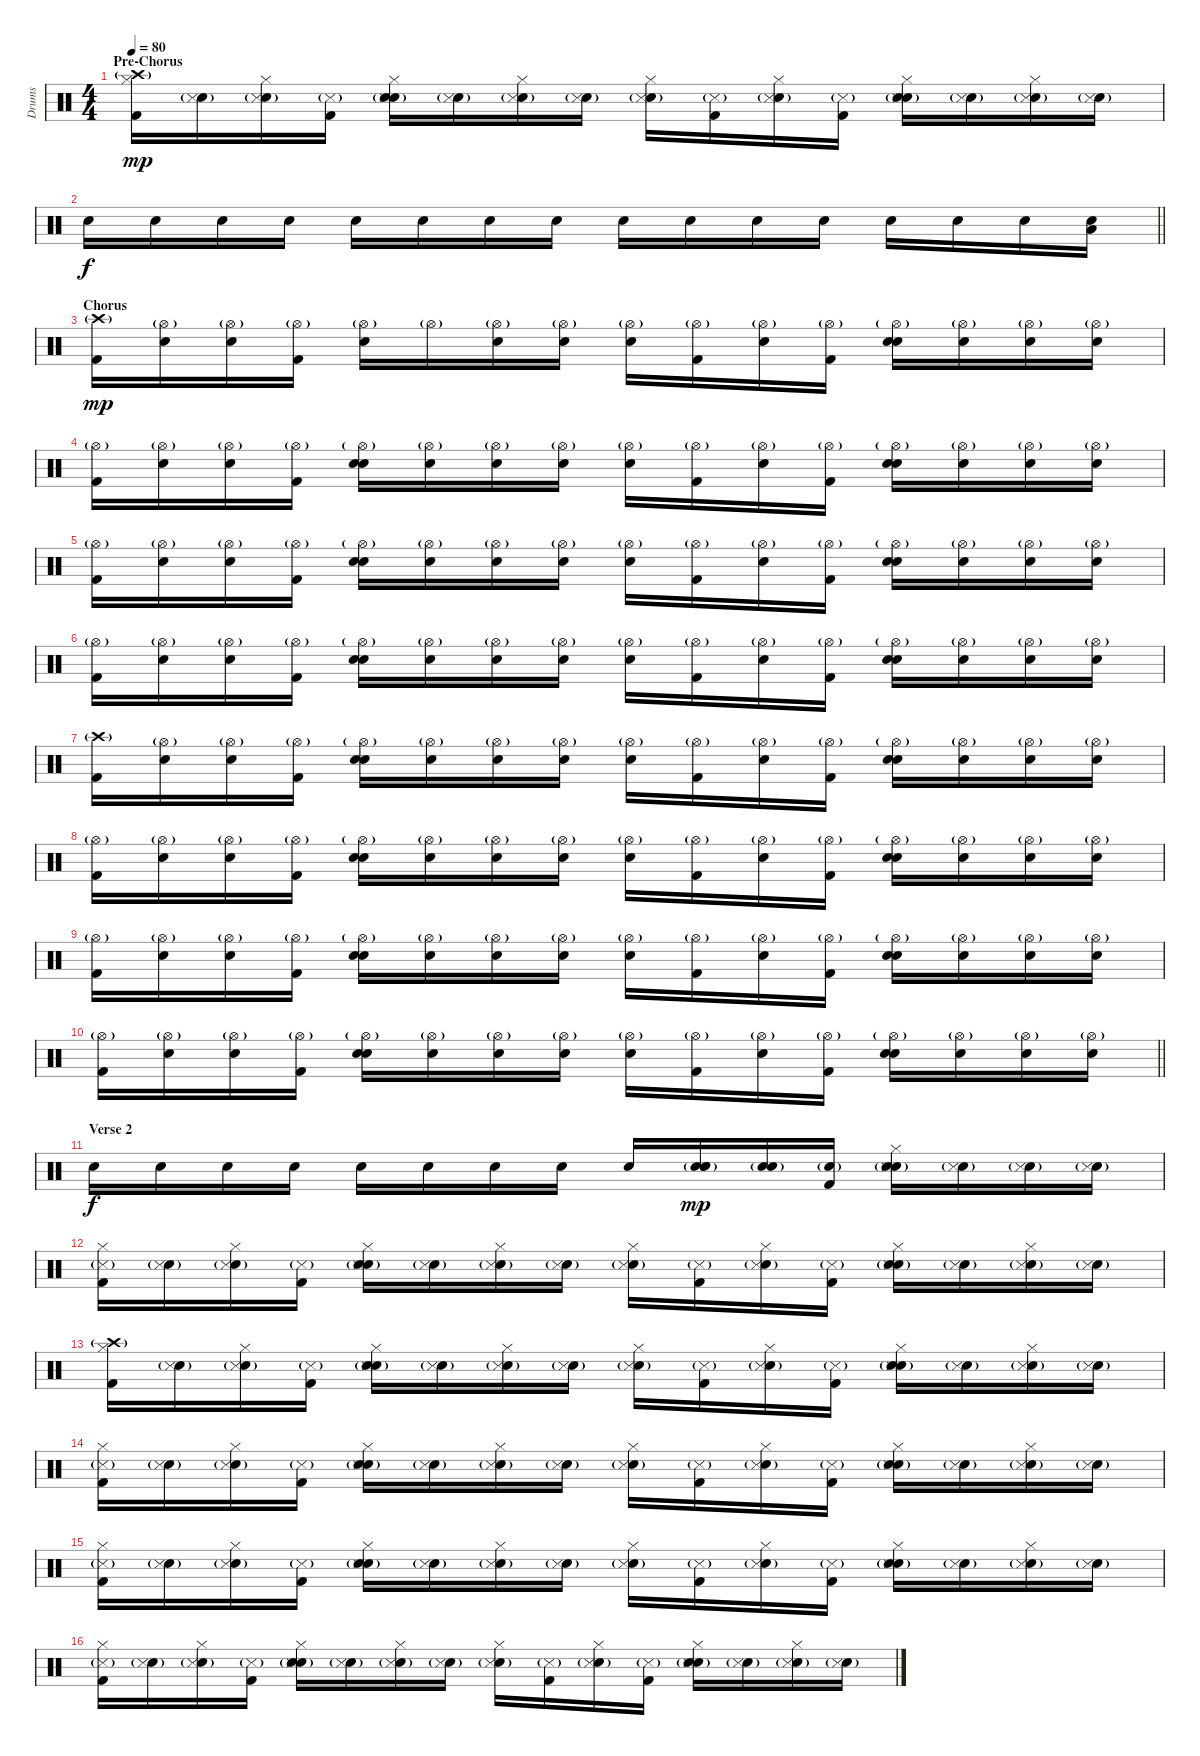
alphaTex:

\track ("Drums" "Drums") {instrument percussion}
\staff {score}
\articulation defaults
\ts (4 4)
\section ("" "Pre-Chorus")
\tempo 80
\clef neutral
\ks c
("Kick (hit) 2" "Hi-Hat (closed)" "Crash high (hit)"{g}).16{dy mp} ("Snare (hit)" "Snare (side stick) 3"{g}).16 ("Snare (hit)" "Hi-Hat (closed)" "Snare (side stick) 3"{g}).16 ("Kick (hit) 2" "Snare (side stick) 3"{g}).16 ("Snare (hit)" "Electric Snare (hit)" "Hi-Hat (closed)" "Snare (side stick) 3"{g}).16 ("Snare (hit)" "Snare (side stick) 3"{g}).16 ("Snare (hit)" "Hi-Hat (closed)" "Snare (side stick) 3"{g}).16 ("Snare (hit)" "Snare (side stick) 3"{g}).16 ("Snare (hit)" "Hi-Hat (closed)" "Snare (side stick) 3"{g}).16 ("Kick (hit) 2" "Snare (side stick) 3"{g}).16 ("Snare (hit)" "Hi-Hat (closed)" "Snare (side stick) 3"{g}).16 ("Kick (hit) 2" "Snare (side stick) 3"{g}).16 ("Snare (hit)" "Electric Snare (hit)" "Hi-Hat (closed)" "Snare (side stick) 3"{g}).16 ("Snare (hit)" "Snare (side stick) 3"{g}).16 ("Snare (hit)" "Hi-Hat (closed)" "Snare (side stick) 3"{g}).16 ("Snare (hit)" "Snare (side stick) 3"{g}).16 |
\barLineRight lightlight "Snare (hit)".16{dy f} "Snare (hit)".16 "Snare (hit)".16 "Snare (hit)".16 "Snare (hit)".16 "Snare (hit)".16 "Snare (hit)".16 "Snare (hit)".16 "Snare (hit)".16 "Snare (hit)".16 "Snare (hit)".16 "Snare (hit)".16 "Electric Snare (hit)".16 "Electric Snare (hit)".16 "Electric Snare (hit)".16
("Snare (hit)" "Low Tom (hit)").16 |
\section ("" "Chorus")
("Kick (hit) 2" "Crash high (hit)"{g}).16{dy mp} ("Snare (hit)" "Hi-Hat (open)"{g}).16 ("Snare (hit)" "Hi-Hat (open)"{g}).16 ("Kick (hit) 2" "Hi-Hat (open)"{g}).16 ("Electric Snare (hit)" "Hi-Hat (open)"{g}).16 "Hi-Hat (open)"{g}.16 ("Snare (hit)" "Hi-Hat (open)"{g}).16 ("Snare (hit)" "Hi-Hat (open)"{g}).16 ("Snare (hit)" "Hi-Hat (open)"{g}).16 ("Kick (hit) 2" "Hi-Hat (open)"{g}).16 ("Snare (hit)" "Hi-Hat (open)"{g}).16 ("Kick (hit) 2" "Hi-Hat (open)"{g}).16 ("Snare (hit)" "Electric Snare (hit)" "Hi-Hat (open)"{g}).16 ("Snare (hit)" "Hi-Hat (open)"{g}).16 ("Snare (hit)" "Hi-Hat (open)"{g}).16 ("Snare (hit)" "Hi-Hat (open)"{g}).16 |
("Kick (hit) 2" "Hi-Hat (open)"{g}).16 ("Snare (hit)" "Hi-Hat (open)"{g}).16 ("Snare (hit)" "Hi-Hat (open)"{g}).16 ("Kick (hit) 2" "Hi-Hat (open)"{g}).16 ("Snare (hit)" "Electric Snare (hit)" "Hi-Hat (open)"{g}).16 ("Snare (hit)" "Hi-Hat (open)"{g}).16 ("Snare (hit)" "Hi-Hat (open)"{g}).16 ("Snare (hit)" "Hi-Hat (open)"{g}).16 ("Snare (hit)" "Hi-Hat (open)"{g}).16 ("Kick (hit) 2" "Hi-Hat (open)"{g}).16 ("Snare (hit)" "Hi-Hat (open)"{g}).16 ("Kick (hit) 2" "Hi-Hat (open)"{g}).16 ("Snare (hit)" "Electric Snare (hit)" "Hi-Hat (open)"{g}).16 ("Snare (hit)" "Hi-Hat (open)"{g}).16 ("Snare (hit)" "Hi-Hat (open)"{g}).16 ("Snare (hit)" "Hi-Hat (open)"{g}).16 |
("Kick (hit) 2" "Hi-Hat (open)"{g}).16 ("Snare (hit)" "Hi-Hat (open)"{g}).16 ("Snare (hit)" "Hi-Hat (open)"{g}).16 ("Kick (hit) 2" "Hi-Hat (open)"{g}).16 ("Snare (hit)" "Electric Snare (hit)" "Hi-Hat (open)"{g}).16 ("Snare (hit)" "Hi-Hat (open)"{g}).16 ("Snare (hit)" "Hi-Hat (open)"{g}).16 ("Snare (hit)" "Hi-Hat (open)"{g}).16 ("Snare (hit)" "Hi-Hat (open)"{g}).16 ("Kick (hit) 2" "Hi-Hat (open)"{g}).16 ("Snare (hit)" "Hi-Hat (open)"{g}).16 ("Kick (hit) 2" "Hi-Hat (open)"{g}).16 ("Snare (hit)" "Electric Snare (hit)" "Hi-Hat (open)"{g}).16 ("Snare (hit)" "Hi-Hat (open)"{g}).16 ("Snare (hit)" "Hi-Hat (open)"{g}).16 ("Snare (hit)" "Hi-Hat (open)"{g}).16 |
("Kick (hit) 2" "Hi-Hat (open)"{g}).16 ("Snare (hit)" "Hi-Hat (open)"{g}).16 ("Snare (hit)" "Hi-Hat (open)"{g}).16 ("Kick (hit) 2" "Hi-Hat (open)"{g}).16 ("Snare (hit)" "Electric Snare (hit)" "Hi-Hat (open)"{g}).16 ("Snare (hit)" "Hi-Hat (open)"{g}).16 ("Snare (hit)" "Hi-Hat (open)"{g}).16 ("Snare (hit)" "Hi-Hat (open)"{g}).16 ("Snare (hit)" "Hi-Hat (open)"{g}).16 ("Kick (hit) 2" "Hi-Hat (open)"{g}).16 ("Snare (hit)" "Hi-Hat (open)"{g}).16 ("Kick (hit) 2" "Hi-Hat (open)"{g}).16 ("Snare (hit)" "Electric Snare (hit)" "Hi-Hat (open)"{g}).16 ("Snare (hit)" "Hi-Hat (open)"{g}).16 ("Snare (hit)" "Hi-Hat (open)"{g}).16 ("Snare (hit)" "Hi-Hat (open)"{g}).16 |
("Kick (hit) 2" "Crash high (hit)"{g}).16 ("Snare (hit)" "Hi-Hat (open)"{g}).16 ("Snare (hit)" "Hi-Hat (open)"{g}).16 ("Kick (hit) 2" "Hi-Hat (open)"{g}).16 ("Snare (hit)" "Electric Snare (hit)" "Hi-Hat (open)"{g}).16 ("Snare (hit)" "Hi-Hat (open)"{g}).16 ("Snare (hit)" "Hi-Hat (open)"{g}).16 ("Snare (hit)" "Hi-Hat (open)"{g}).16 ("Snare (hit)" "Hi-Hat (open)"{g}).16 ("Kick (hit) 2" "Hi-Hat (open)"{g}).16 ("Snare (hit)" "Hi-Hat (open)"{g}).16 ("Kick (hit) 2" "Hi-Hat (open)"{g}).16 ("Snare (hit)" "Electric Snare (hit)" "Hi-Hat (open)"{g}).16 ("Snare (hit)" "Hi-Hat (open)"{g}).16 ("Snare (hit)" "Hi-Hat (open)"{g}).16 ("Snare (hit)" "Hi-Hat (open)"{g}).16 |
("Kick (hit) 2" "Hi-Hat (open)"{g}).16 ("Snare (hit)" "Hi-Hat (open)"{g}).16 ("Snare (hit)" "Hi-Hat (open)"{g}).16 ("Kick (hit) 2" "Hi-Hat (open)"{g}).16 ("Snare (hit)" "Electric Snare (hit)" "Hi-Hat (open)"{g}).16 ("Snare (hit)" "Hi-Hat (open)"{g}).16 ("Snare (hit)" "Hi-Hat (open)"{g}).16 ("Snare (hit)" "Hi-Hat (open)"{g}).16 ("Snare (hit)" "Hi-Hat (open)"{g}).16 ("Kick (hit) 2" "Hi-Hat (open)"{g}).16 ("Snare (hit)" "Hi-Hat (open)"{g}).16 ("Kick (hit) 2" "Hi-Hat (open)"{g}).16 ("Snare (hit)" "Electric Snare (hit)" "Hi-Hat (open)"{g}).16 ("Snare (hit)" "Hi-Hat (open)"{g}).16 ("Snare (hit)" "Hi-Hat (open)"{g}).16 ("Snare (hit)" "Hi-Hat (open)"{g}).16 |
("Kick (hit) 2" "Hi-Hat (open)"{g}).16 ("Snare (hit)" "Hi-Hat (open)"{g}).16 ("Snare (hit)" "Hi-Hat (open)"{g}).16 ("Kick (hit) 2" "Hi-Hat (open)"{g}).16 ("Snare (hit)" "Electric Snare (hit)" "Hi-Hat (open)"{g}).16 ("Snare (hit)" "Hi-Hat (open)"{g}).16 ("Snare (hit)" "Hi-Hat (open)"{g}).16 ("Snare (hit)" "Hi-Hat (open)"{g}).16 ("Snare (hit)" "Hi-Hat (open)"{g}).16 ("Kick (hit) 2" "Hi-Hat (open)"{g}).16 ("Snare (hit)" "Hi-Hat (open)"{g}).16 ("Kick (hit) 2" "Hi-Hat (open)"{g}).16 ("Snare (hit)" "Electric Snare (hit)" "Hi-Hat (open)"{g}).16 ("Snare (hit)" "Hi-Hat (open)"{g}).16 ("Snare (hit)" "Hi-Hat (open)"{g}).16 ("Snare (hit)" "Hi-Hat (open)"{g}).16 |
\barLineRight lightlight
("Kick (hit) 2" "Hi-Hat (open)"{g}).16 ("Snare (hit)" "Hi-Hat (open)"{g}).16 ("Snare (hit)" "Hi-Hat (open)"{g}).16 ("Kick (hit) 2" "Hi-Hat (open)"{g}).16 ("Snare (hit)" "Electric Snare (hit)" "Hi-Hat (open)"{g}).16 ("Snare (hit)" "Hi-Hat (open)"{g}).16 ("Snare (hit)" "Hi-Hat (open)"{g}).16 ("Snare (hit)" "Hi-Hat (open)"{g}).16 ("Snare (hit)" "Hi-Hat (open)"{g}).16 ("Kick (hit) 2" "Hi-Hat (open)"{g}).16 ("Snare (hit)" "Hi-Hat (open)"{g}).16 ("Kick (hit) 2" "Hi-Hat (open)"{g}).16 ("Snare (hit)" "Electric Snare (hit)" "Hi-Hat (open)"{g}).16 ("Snare (hit)" "Hi-Hat (open)"{g}).16 ("Snare (hit)" "Hi-Hat (open)"{g}).16 ("Snare (hit)" "Hi-Hat (open)"{g}).16 |
\section ("" "Verse 2")
"Snare (hit)".16{dy f} "Snare (hit)".16 "Snare (hit)".16 "Snare (hit)".16 "Snare (hit)".16 "Snare (hit)".16 "Snare (hit)".16 "Snare (hit)".16 "Snare (hit)".16 ("Snare (hit)" "Snare (hit)" "Snare (hit)"{g}).16{dy mp} ("Snare (hit)" "Snare (hit)"{g}).16 ("Kick (hit) 2" "Snare (hit)"{g}).16 ("Snare (hit)" "Electric Snare (hit)" "Hi-Hat (closed)" "Snare (side stick) 3"{g}).16 ("Snare (hit)" "Snare (side stick) 3"{g}).16 ("Snare (hit)" "Snare (side stick) 3"{g}).16 ("Snare (hit)" "Snare (side stick) 3"{g}).16 |
("Kick (hit) 2" "Hi-Hat (closed)" "Snare (side stick) 3"{g}).16 ("Snare (hit)" "Snare (side stick) 3"{g}).16 ("Snare (hit)" "Hi-Hat (closed)" "Snare (side stick) 3"{g}).16 ("Kick (hit) 2" "Snare (side stick) 3"{g}).16 ("Snare (hit)" "Electric Snare (hit)" "Hi-Hat (closed)" "Snare (side stick) 3"{g}).16 ("Snare (hit)" "Snare (side stick) 3"{g}).16 ("Snare (hit)" "Hi-Hat (closed)" "Snare (side stick) 3"{g}).16 ("Snare (hit)" "Snare (side stick) 3"{g}).16 ("Snare (hit)" "Hi-Hat (closed)" "Snare (side stick) 3"{g}).16 ("Kick (hit) 2" "Snare (side stick) 3"{g}).16 ("Snare (hit)" "Hi-Hat (closed)" "Snare (side stick) 3"{g}).16 ("Kick (hit) 2" "Snare (side stick) 3"{g}).16 ("Snare (hit)" "Electric Snare (hit)" "Hi-Hat (closed)" "Snare (side stick) 3"{g}).16 ("Snare (hit)" "Snare (side stick) 3"{g}).16 ("Snare (hit)" "Hi-Hat (closed)" "Snare (side stick) 3"{g}).16 ("Snare (hit)" "Snare (side stick) 3"{g}).16 |
("Kick (hit) 2" "Hi-Hat (closed)" "Crash high (hit)"{g}).16 ("Snare (hit)" "Snare (side stick) 3"{g}).16 ("Snare (hit)" "Hi-Hat (closed)" "Snare (side stick) 3"{g}).16 ("Kick (hit) 2" "Snare (side stick) 3"{g}).16 ("Snare (hit)" "Electric Snare (hit)" "Hi-Hat (closed)" "Snare (side stick) 3"{g}).16 ("Snare (hit)" "Snare (side stick) 3"{g}).16 ("Snare (hit)" "Hi-Hat (closed)" "Snare (side stick) 3"{g}).16 ("Snare (hit)" "Snare (side stick) 3"{g}).16 ("Snare (hit)" "Hi-Hat (closed)" "Snare (side stick) 3"{g}).16 ("Kick (hit) 2" "Snare (side stick) 3"{g}).16 ("Snare (hit)" "Hi-Hat (closed)" "Snare (side stick) 3"{g}).16 ("Kick (hit) 2" "Snare (side stick) 3"{g}).16 ("Snare (hit)" "Electric Snare (hit)" "Hi-Hat (closed)" "Snare (side stick) 3"{g}).16 ("Snare (hit)" "Snare (side stick) 3"{g}).16 ("Snare (hit)" "Hi-Hat (closed)" "Snare (side stick) 3"{g}).16 ("Snare (hit)" "Snare (side stick) 3"{g}).16 |
("Kick (hit) 2" "Hi-Hat (closed)" "Snare (side stick) 3"{g}).16 ("Snare (hit)" "Snare (side stick) 3"{g}).16 ("Snare (hit)" "Hi-Hat (closed)" "Snare (side stick) 3"{g}).16 ("Kick (hit) 2" "Snare (side stick) 3"{g}).16 ("Snare (hit)" "Electric Snare (hit)" "Hi-Hat (closed)" "Snare (side stick) 3"{g}).16 ("Snare (hit)" "Snare (side stick) 3"{g}).16 ("Snare (hit)" "Hi-Hat (closed)" "Snare (side stick) 3"{g}).16 ("Snare (hit)" "Snare (side stick) 3"{g}).16 ("Snare (hit)" "Hi-Hat (closed)" "Snare (side stick) 3"{g}).16 ("Kick (hit) 2" "Snare (side stick) 3"{g}).16 ("Snare (hit)" "Hi-Hat (closed)" "Snare (side stick) 3"{g}).16 ("Kick (hit) 2" "Snare (side stick) 3"{g}).16 ("Snare (hit)" "Electric Snare (hit)" "Hi-Hat (closed)" "Snare (side stick) 3"{g}).16 ("Snare (hit)" "Snare (side stick) 3"{g}).16 ("Snare (hit)" "Hi-Hat (closed)" "Snare (side stick) 3"{g}).16 ("Snare (hit)" "Snare (side stick) 3"{g}).16 |
("Kick (hit) 2" "Hi-Hat (closed)" "Snare (side stick) 3"{g}).16 ("Snare (hit)" "Snare (side stick) 3"{g}).16 ("Snare (hit)" "Hi-Hat (closed)" "Snare (side stick) 3"{g}).16 ("Kick (hit) 2" "Snare (side stick) 3"{g}).16 ("Snare (hit)" "Electric Snare (hit)" "Hi-Hat (closed)" "Snare (side stick) 3"{g}).16 ("Snare (hit)" "Snare (side stick) 3"{g}).16 ("Snare (hit)" "Hi-Hat (closed)" "Snare (side stick) 3"{g}).16 ("Snare (hit)" "Snare (side stick) 3"{g}).16 ("Snare (hit)" "Hi-Hat (closed)" "Snare (side stick) 3"{g}).16 ("Kick (hit) 2" "Snare (side stick) 3"{g}).16 ("Snare (hit)" "Hi-Hat (closed)" "Snare (side stick) 3"{g}).16 ("Kick (hit) 2" "Snare (side stick) 3"{g}).16 ("Snare (hit)" "Electric Snare (hit)" "Hi-Hat (closed)" "Snare (side stick) 3"{g}).16 ("Snare (hit)" "Snare (side stick) 3"{g}).16 ("Snare (hit)" "Hi-Hat (closed)" "Snare (side stick) 3"{g}).16 ("Snare (hit)" "Snare (side stick) 3"{g}).16 |
("Kick (hit) 2" "Hi-Hat (closed)" "Snare (side stick) 3"{g}).16 ("Snare (hit)" "Snare (side stick) 3"{g}).16 ("Snare (hit)" "Hi-Hat (closed)" "Snare (side stick) 3"{g}).16 ("Kick (hit) 2" "Snare (side stick) 3"{g}).16 ("Snare (hit)" "Electric Snare (hit)" "Hi-Hat (closed)" "Snare (side stick) 3"{g}).16 ("Snare (hit)" "Snare (side stick) 3"{g}).16 ("Snare (hit)" "Hi-Hat (closed)" "Snare (side stick) 3"{g}).16 ("Snare (hit)" "Snare (side stick) 3"{g}).16 ("Snare (hit)" "Hi-Hat (closed)" "Snare (side stick) 3"{g}).16 ("Kick (hit) 2" "Snare (side stick) 3"{g}).16 ("Snare (hit)" "Hi-Hat (closed)" "Snare (side stick) 3"{g}).16 ("Kick (hit) 2" "Snare (side stick) 3"{g}).16 ("Snare (hit)" "Electric Snare (hit)" "Hi-Hat (closed)" "Snare (side stick) 3"{g}).16 ("Snare (hit)" "Snare (side stick) 3"{g}).16 ("Snare (hit)" "Hi-Hat (closed)" "Snare (side stick) 3"{g}).16 ("Snare (hit)" "Snare (side stick) 3"{g}).16
